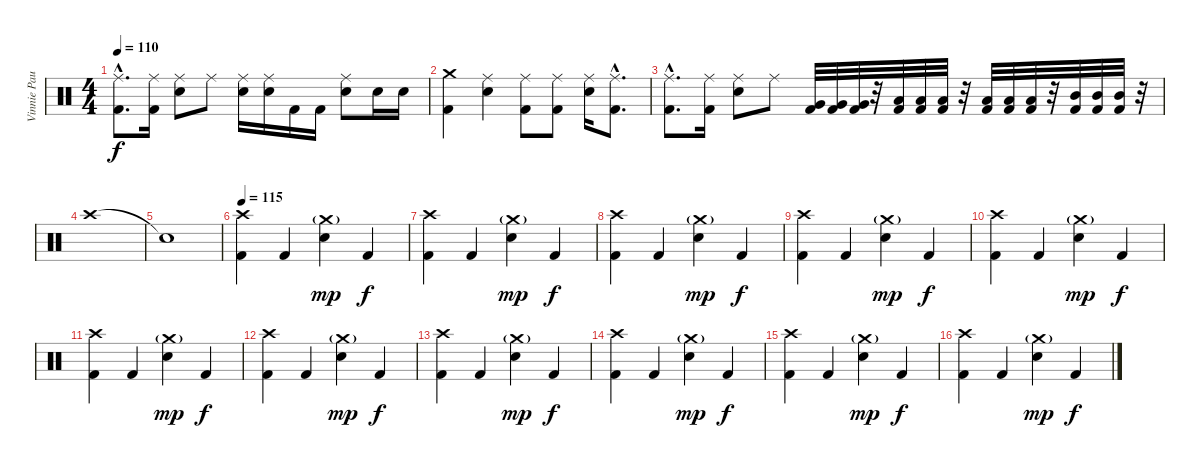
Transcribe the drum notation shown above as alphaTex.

\track ("Vinnie Paul" "Vinnie Pau") {instrument percussion}
\staff {score}
\articulation defaults
\ts (4 4)
\tempo 110
\clef neutral
\ks c
("Ride (middle)"{hac} "Kick (hit) 2"{hac}).8{d dy f} ("Ride (middle)" "Kick (hit) 2").16 ("Electric Snare (hit)" "Ride (middle)").8 "Ride (middle)".8 ("Electric Snare (hit)" "Ride (middle)").16 ("Electric Snare (hit)" "Ride (middle)").16 "Kick (hit) 2".16 "Kick (hit) 2".16 ("Electric Snare (hit)" "Ride (middle)").8 "Electric Snare (hit)".16 "Electric Snare (hit)".16 |
("Crash medium (hit)" "Kick (hit) 2").4 ("Electric Snare (hit)" "Ride (middle)").4 ("Ride (middle)" "Kick (hit) 2").8 ("Ride (middle)" "Kick (hit) 2").8 ("Electric Snare (hit)" "Ride (middle)").16 ("Ride (middle)"{hac} "Kick (hit) 2"{hac}).8{d} |
("Ride (middle)"{hac} "Kick (hit) 2"{hac}).8{d} ("Ride (middle)" "Kick (hit) 2").16 ("Electric Snare (hit)" "Ride (middle)").8 "Ride (middle)".8 ("Very Low Tom (hit)" "Kick (hit) 2").32 ("Very Low Tom (hit)" "Kick (hit) 2").32 ("Very Low Tom (hit)" "Kick (hit) 2").32 r.32 ("Low Tom (hit)" "Kick (hit) 2").32 ("Low Tom (hit)" "Kick (hit) 2").32 ("Low Tom (hit)" "Kick (hit) 2").32 r.32 ("Low Tom (hit)" "Kick (hit) 2").32 ("Low Tom (hit)" "Kick (hit) 2").32 ("Low Tom (hit)" "Kick (hit) 2").32 r.32 ("Mid Tom (hit)" "Kick (hit) 2").32 ("Mid Tom (hit)" "Kick (hit) 2").32 ("Mid Tom (hit)" "Kick (hit) 2").32 r.32 |
"Crash high (hit)".1 |
"Snare (hit)"{t}.1 |
\tempo 115
("Crash high (hit)" "Kick (hit) 2").4 "Kick (hit) 2".4 ("Crash medium (hit)"{g} "Electric Snare (hit)").4{dy mp} "Kick (hit) 2".4{dy f} |
("Crash high (hit)" "Kick (hit) 2").4 "Kick (hit) 2".4 ("Crash medium (hit)"{g} "Electric Snare (hit)").4{dy mp} "Kick (hit) 2".4{dy f} |
("Crash high (hit)" "Kick (hit) 2").4 "Kick (hit) 2".4 ("Crash medium (hit)"{g} "Electric Snare (hit)").4{dy mp} "Kick (hit) 2".4{dy f} |
("Crash high (hit)" "Kick (hit) 2").4 "Kick (hit) 2".4 ("Crash medium (hit)"{g} "Electric Snare (hit)").4{dy mp} "Kick (hit) 2".4{dy f} |
("Crash high (hit)" "Kick (hit) 2").4 "Kick (hit) 2".4 ("Crash medium (hit)"{g} "Electric Snare (hit)").4{dy mp} "Kick (hit) 2".4{dy f} |
("Crash high (hit)" "Kick (hit) 2").4 "Kick (hit) 2".4 ("Crash medium (hit)"{g} "Electric Snare (hit)").4{dy mp} "Kick (hit) 2".4{dy f} |
("Crash high (hit)" "Kick (hit) 2").4 "Kick (hit) 2".4 ("Crash medium (hit)"{g} "Electric Snare (hit)").4{dy mp} "Kick (hit) 2".4{dy f} |
("Crash high (hit)" "Kick (hit) 2").4 "Kick (hit) 2".4 ("Crash medium (hit)"{g} "Electric Snare (hit)").4{dy mp} "Kick (hit) 2".4{dy f} |
("Crash high (hit)" "Kick (hit) 2").4 "Kick (hit) 2".4 ("Crash medium (hit)"{g} "Electric Snare (hit)").4{dy mp} "Kick (hit) 2".4{dy f} |
("Crash high (hit)" "Kick (hit) 2").4 "Kick (hit) 2".4 ("Crash medium (hit)"{g} "Electric Snare (hit)").4{dy mp} "Kick (hit) 2".4{dy f} |
("Crash high (hit)" "Kick (hit) 2").4 "Kick (hit) 2".4 ("Crash medium (hit)"{g} "Electric Snare (hit)").4{dy mp} "Kick (hit) 2".4{dy f}
